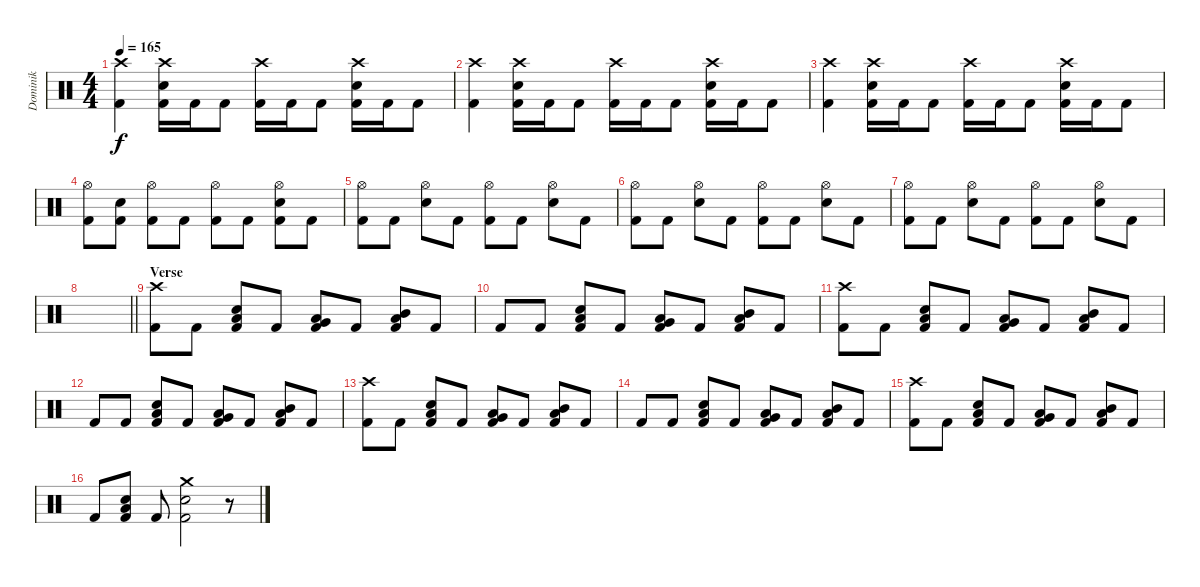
\track ("Dominik" "Dominik") {instrument percussion}
\staff {score}
\articulation defaults
\ts (4 4)
\tempo 165
\clef neutral
\ks c
("Crash high (hit)" "Kick (hit) 2").4{dy f} ("Crash high (hit)" "Electric Snare (hit)" "Kick (hit) 2").16 "Kick (hit) 2".16 "Kick (hit) 2".8 ("Crash high (hit)" "Kick (hit) 2").16 "Kick (hit) 2".16 "Kick (hit) 2".8 ("Crash high (hit)" "Electric Snare (hit)" "Kick (hit) 2").16 "Kick (hit) 2".16 "Kick (hit) 2".8 |
("Crash high (hit)" "Kick (hit) 2").4 ("Crash high (hit)" "Electric Snare (hit)" "Kick (hit) 2").16 "Kick (hit) 2".16 "Kick (hit) 2".8 ("Crash high (hit)" "Kick (hit) 2").16 "Kick (hit) 2".16 "Kick (hit) 2".8 ("Crash high (hit)" "Electric Snare (hit)" "Kick (hit) 2").16 "Kick (hit) 2".16 "Kick (hit) 2".8 |
("Crash high (hit)" "Kick (hit) 2").4 ("Crash high (hit)" "Electric Snare (hit)" "Kick (hit) 2").16 "Kick (hit) 2".16 "Kick (hit) 2".8 ("Crash high (hit)" "Kick (hit) 2").16 "Kick (hit) 2".16 "Kick (hit) 2".8 ("Crash high (hit)" "Electric Snare (hit)" "Kick (hit) 2").16 "Kick (hit) 2".16 "Kick (hit) 2".8 |
("Hi-Hat (open)" "Kick (hit) 2").8 ("Electric Snare (hit)" "Kick (hit) 2").8 ("Hi-Hat (open)" "Kick (hit) 2").8 "Kick (hit) 2".8 ("Hi-Hat (open)" "Kick (hit) 2").8 "Kick (hit) 2".8 ("Hi-Hat (open)" "Electric Snare (hit)" "Kick (hit) 2").8 "Kick (hit) 2".8 |
("Hi-Hat (open)" "Kick (hit) 2").8 "Kick (hit) 2".8 ("Hi-Hat (open)" "Electric Snare (hit)").8 "Kick (hit) 2".8 ("Hi-Hat (open)" "Kick (hit) 2").8 "Kick (hit) 2".8 ("Hi-Hat (open)" "Electric Snare (hit)").8 "Kick (hit) 2".8 |
("Hi-Hat (open)" "Kick (hit) 2").8 "Kick (hit) 2".8 ("Hi-Hat (open)" "Electric Snare (hit)").8 "Kick (hit) 2".8 ("Hi-Hat (open)" "Kick (hit) 2").8 "Kick (hit) 2".8 ("Hi-Hat (open)" "Electric Snare (hit)").8 "Kick (hit) 2".8 |
("Hi-Hat (open)" "Kick (hit) 2").8 "Kick (hit) 2".8 ("Hi-Hat (open)" "Electric Snare (hit)").8 "Kick (hit) 2".8 ("Hi-Hat (open)" "Kick (hit) 2").8 "Kick (hit) 2".8 ("Hi-Hat (open)" "Electric Snare (hit)").8 "Kick (hit) 2".8 |
\barLineRight lightlight
|
\section ("" "Verse")
("Crash high (hit)" "Kick (hit) 2").8 "Kick (hit) 2".8 ("Electric Snare (hit)" "Low Tom (hit)" "Kick (hit) 2").8 "Kick (hit) 2".8 ("Low Floor Tom (hit)" "Very Low Tom (hit)" "Kick (hit) 2").8 "Kick (hit) 2".8 ("Mid Tom (hit)" "Low Tom (hit)" "Kick (hit) 2").8 "Kick (hit) 2".8 |
"Kick (hit) 2".8 "Kick (hit) 2".8 ("Electric Snare (hit)" "Low Tom (hit)" "Kick (hit) 2").8 "Kick (hit) 2".8 ("Low Floor Tom (hit)" "Very Low Tom (hit)" "Kick (hit) 2").8 "Kick (hit) 2".8 ("Mid Tom (hit)" "Low Tom (hit)" "Kick (hit) 2").8 "Kick (hit) 2".8 |
("Crash high (hit)" "Kick (hit) 2").8 "Kick (hit) 2".8 ("Electric Snare (hit)" "Low Tom (hit)" "Kick (hit) 2").8 "Kick (hit) 2".8 ("Low Floor Tom (hit)" "Very Low Tom (hit)" "Kick (hit) 2").8 "Kick (hit) 2".8 ("Mid Tom (hit)" "Low Tom (hit)" "Kick (hit) 2").8 "Kick (hit) 2".8 |
"Kick (hit) 2".8 "Kick (hit) 2".8 ("Electric Snare (hit)" "Low Tom (hit)" "Kick (hit) 2").8 "Kick (hit) 2".8 ("Low Floor Tom (hit)" "Very Low Tom (hit)" "Kick (hit) 2").8 "Kick (hit) 2".8 ("Mid Tom (hit)" "Low Tom (hit)" "Kick (hit) 2").8 "Kick (hit) 2".8 |
("Crash high (hit)" "Kick (hit) 2").8 "Kick (hit) 2".8 ("Electric Snare (hit)" "Low Tom (hit)" "Kick (hit) 2").8 "Kick (hit) 2".8 ("Low Floor Tom (hit)" "Very Low Tom (hit)" "Kick (hit) 2").8 "Kick (hit) 2".8 ("Mid Tom (hit)" "Low Tom (hit)" "Kick (hit) 2").8 "Kick (hit) 2".8 |
"Kick (hit) 2".8 "Kick (hit) 2".8 ("Electric Snare (hit)" "Low Tom (hit)" "Kick (hit) 2").8 "Kick (hit) 2".8 ("Low Floor Tom (hit)" "Very Low Tom (hit)" "Kick (hit) 2").8 "Kick (hit) 2".8 ("Mid Tom (hit)" "Low Tom (hit)" "Kick (hit) 2").8 "Kick (hit) 2".8 |
("Crash high (hit)" "Kick (hit) 2").8 "Kick (hit) 2".8 ("Electric Snare (hit)" "Low Tom (hit)" "Kick (hit) 2").8 "Kick (hit) 2".8 ("Low Floor Tom (hit)" "Very Low Tom (hit)" "Kick (hit) 2").8 "Kick (hit) 2".8 ("Mid Tom (hit)" "Low Tom (hit)" "Kick (hit) 2").8 "Kick (hit) 2".8 |
"Kick (hit) 2".8 ("Low Tom (hit)" "Electric Snare (hit)" "Kick (hit) 2").8 "Kick (hit) 2".8 ("Crash medium (hit)" "Electric Snare (hit)" "Kick (hit) 2").2 r.8
